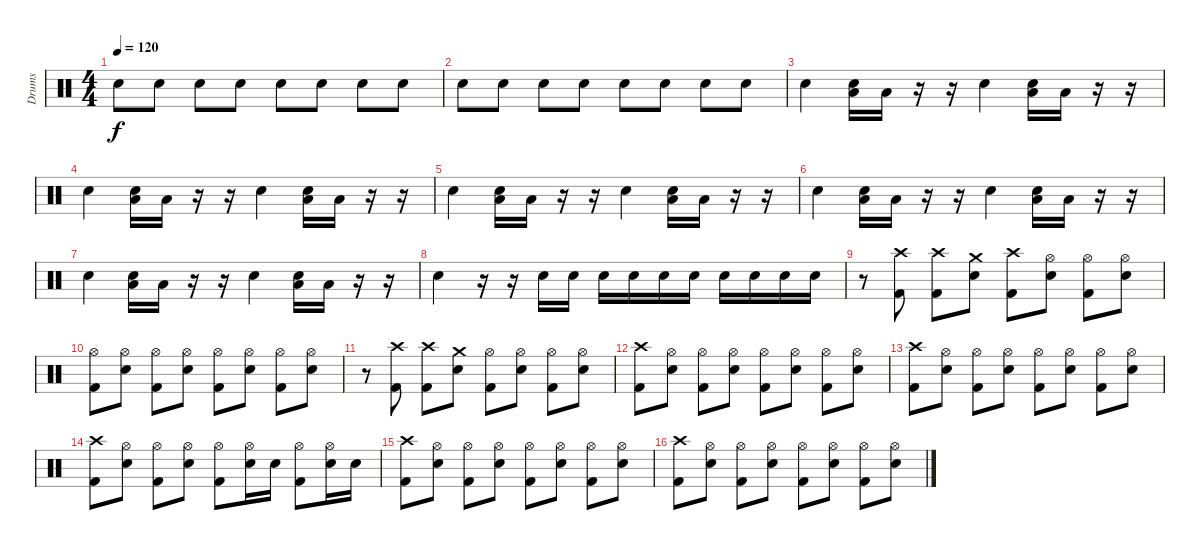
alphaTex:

\track ("Drums" "Drums") {instrument percussion}
\staff {score}
\articulation defaults
\ts (4 4)
\tempo 120
\clef neutral
\ks c "Snare (hit) 2".8{dy f volume 16} "Snare (hit) 2".8 "Snare (hit) 2".8 "Snare (hit) 2".8 "Snare (hit) 2".8 "Snare (hit) 2".8 "Snare (hit) 2".8 "Snare (hit) 2".8
|
"Snare (hit) 2".8 "Snare (hit) 2".8 "Snare (hit) 2".8 "Snare (hit) 2".8 "Snare (hit) 2".8 "Snare (hit) 2".8 "Snare (hit) 2".8 "Snare (hit) 2".8 |
"Hand Clap (hit)".4 ("Hand Clap (hit)" "Low Tom (hit)").16 "Low Tom (hit)".16 r.16 r.16 "Hand Clap (hit)".4 ("Hand Clap (hit)" "Low Tom (hit)").16 "Low Tom (hit)".16 r.16 r.16 |
"Hand Clap (hit)".4 ("Hand Clap (hit)" "Low Tom (hit)").16 "Low Tom (hit)".16 r.16 r.16 "Hand Clap (hit)".4 ("Hand Clap (hit)" "Low Tom (hit)").16 "Low Tom (hit)".16 r.16 r.16 |
"Hand Clap (hit)".4 ("Hand Clap (hit)" "Low Tom (hit)").16 "Low Tom (hit)".16 r.16 r.16 "Hand Clap (hit)".4 ("Hand Clap (hit)" "Low Tom (hit)").16 "Low Tom (hit)".16 r.16 r.16 |
"Hand Clap (hit)".4 ("Hand Clap (hit)" "Low Tom (hit)").16 "Low Tom (hit)".16 r.16 r.16 "Hand Clap (hit)".4 ("Hand Clap (hit)" "Low Tom (hit)").16 "Low Tom (hit)".16 r.16 r.16 |
"Hand Clap (hit)".4 ("Hand Clap (hit)" "Low Tom (hit)").16 "Low Tom (hit)".16 r.16 r.16 "Hand Clap (hit)".4 ("Hand Clap (hit)" "Low Tom (hit)").16 "Low Tom (hit)".16 r.16 r.16 |
"Hand Clap (hit)".4 r.16 r.16 "Snare (hit) 2".16 "Snare (hit) 2".16 "Snare (hit) 2".16 "Snare (hit) 2".16 "Snare (hit) 2".16 "Snare (hit) 2".16 "Snare (hit) 2".16 "Snare (hit) 2".16 "Snare (hit) 2".16 "Snare (hit) 2".16 |
r.8 ("Crash high (hit)" "Kick (hit) 2").8 ("Crash high (hit)" "Kick (hit) 2").8 ("Crash medium (hit)" "Snare (hit) 2").8 ("Crash high (hit)" "Kick (hit) 2").8 ("Hi-Hat (open)" "Snare (hit) 2").8 ("Hi-Hat (open)" "Kick (hit) 2").8 ("Hi-Hat (open)" "Snare (hit) 2").8 |
("Hi-Hat (open)" "Kick (hit) 2").8{volume 16} ("Hi-Hat (open)" "Snare (hit) 2").8 ("Hi-Hat (open)" "Kick (hit) 2").8 ("Hi-Hat (open)" "Snare (hit) 2").8 ("Hi-Hat (open)" "Kick (hit) 2").8 ("Hi-Hat (open)" "Snare (hit) 2").8 ("Hi-Hat (open)" "Kick (hit) 2").8 ("Hi-Hat (open)" "Snare (hit) 2").8 |
r.8 ("Crash high (hit)" "Kick (hit) 2").8 ("Crash high (hit)" "Kick (hit) 2").8 ("Crash medium (hit)" "Snare (hit) 2").8 ("Hi-Hat (open)" "Kick (hit) 2").8 ("Hi-Hat (open)" "Snare (hit) 2").8 ("Hi-Hat (open)" "Kick (hit) 2").8 ("Hi-Hat (open)" "Snare (hit) 2").8 |
("Crash high (hit)" "Kick (hit) 2").8{volume 16} ("Hi-Hat (open)" "Snare (hit) 2").8 ("Hi-Hat (open)" "Kick (hit) 2").8 ("Hi-Hat (open)" "Snare (hit) 2").8 ("Hi-Hat (open)" "Kick (hit) 2").8 ("Hi-Hat (open)" "Snare (hit) 2").8 ("Hi-Hat (open)" "Kick (hit) 2").8 ("Hi-Hat (open)" "Snare (hit) 2").8 |
("Crash high (hit)" "Kick (hit) 2").8{volume 16} ("Hi-Hat (open)" "Snare (hit) 2").8 ("Hi-Hat (open)" "Kick (hit) 2").8 ("Hi-Hat (open)" "Snare (hit) 2").8 ("Hi-Hat (open)" "Kick (hit) 2").8 ("Hi-Hat (open)" "Snare (hit) 2").8 ("Hi-Hat (open)" "Kick (hit) 2").8 ("Hi-Hat (open)" "Snare (hit) 2").8 |
("Crash high (hit)" "Kick (hit) 2").8{volume 16} ("Hi-Hat (open)" "Snare (hit) 2").8 ("Hi-Hat (open)" "Kick (hit) 2").8 ("Hi-Hat (open)" "Snare (hit) 2").8 ("Hi-Hat (open)" "Kick (hit) 2").8 ("Hi-Hat (open)" "Snare (hit) 2").16 "Snare (hit) 2".16 ("Hi-Hat (open)" "Kick (hit) 2").8 ("Hi-Hat (open)" "Snare (hit) 2").16 "Snare (hit) 2".16 |
("Crash high (hit)" "Kick (hit) 2").8{volume 16} ("Hi-Hat (open)" "Snare (hit) 2").8 ("Hi-Hat (open)" "Kick (hit) 2").8 ("Hi-Hat (open)" "Snare (hit) 2").8 ("Hi-Hat (open)" "Kick (hit) 2").8 ("Hi-Hat (open)" "Snare (hit) 2").8 ("Hi-Hat (open)" "Kick (hit) 2").8 ("Hi-Hat (open)" "Snare (hit) 2").8 |
("Crash high (hit)" "Kick (hit) 2").8{volume 16} ("Hi-Hat (open)" "Snare (hit) 2").8 ("Hi-Hat (open)" "Kick (hit) 2").8 ("Hi-Hat (open)" "Snare (hit) 2").8 ("Hi-Hat (open)" "Kick (hit) 2").8 ("Hi-Hat (open)" "Snare (hit) 2").8 ("Hi-Hat (open)" "Kick (hit) 2").8 ("Hi-Hat (open)" "Snare (hit) 2").8
